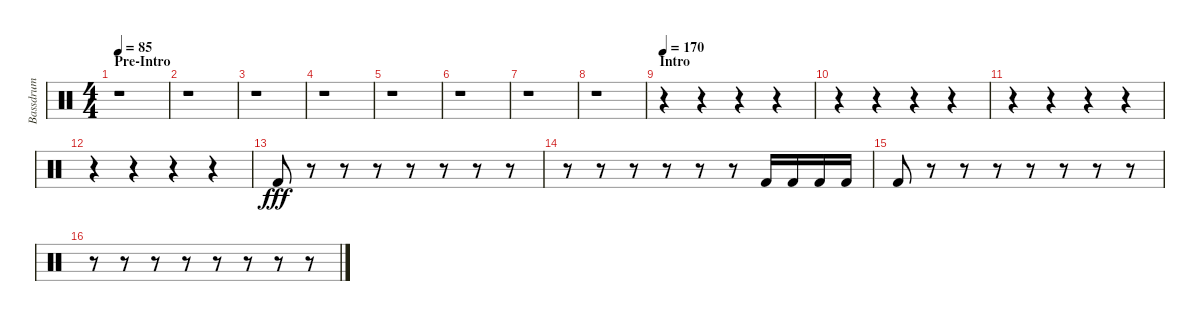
\track ("Bassdrum" "Bassdrum") {instrument percussion}
\staff {score}
\articulation defaults
\ts (4 4)
\section ("" "Pre-Intro")
\tempo 85
\clef neutral
\ks c
r.1{dy fff} |
r.1 |
r.1 |
r.1 |
r.1 |
r.1 |
r.1 |
r.1 |
\section ("" "Intro")
\tempo 170
r.4 r.4 r.4 r.4 |
r.4 r.4 r.4 r.4 |
r.4 r.4 r.4 r.4 |
r.4 r.4 r.4 r.4 |
"Kick (hit) 2".8 r.8 r.8 r.8 r.8 r.8 r.8 r.8 |
r.8 r.8 r.8 r.8 r.8 r.8 "Kick (hit) 2".16 "Kick (hit) 2".16 "Kick (hit) 2".16 "Kick (hit) 2".16 |
"Kick (hit) 2".8 r.8 r.8 r.8 r.8 r.8 r.8 r.8 |
r.8 r.8 r.8 r.8 r.8 r.8 r.8 r.8
